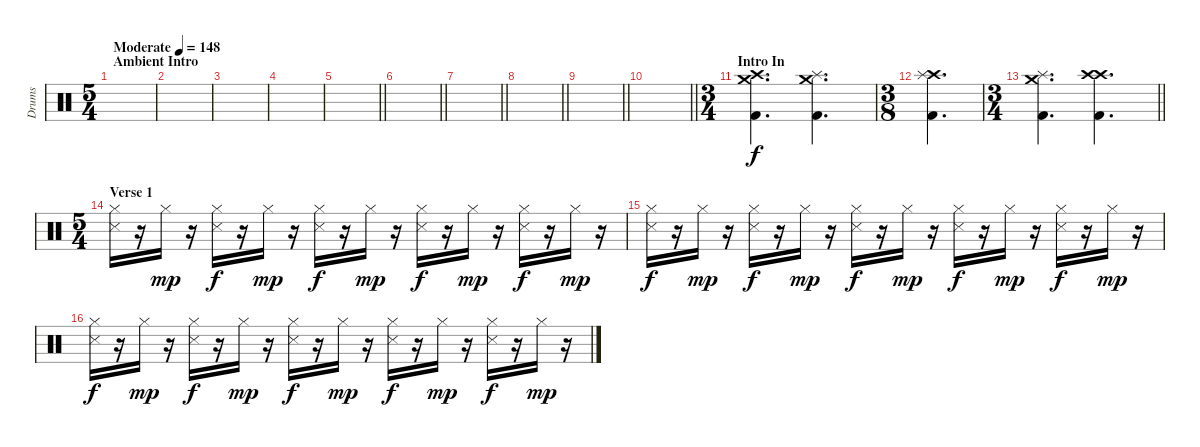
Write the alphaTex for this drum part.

\track ("Drums" "Drums") {instrument percussion}
\staff {score}
\articulation defaults
\ts (5 4)
\section ("" "Ambient Intro")
\tempo (148 "Moderate")
\clef neutral
\ks c
|
|
|
|
\barLineRight lightlight
|
\barLineRight lightlight
|
\barLineRight lightlight
|
\barLineRight lightlight
|
\barLineRight lightlight
|
\barLineRight lightlight
|
\ts (3 4)
\section ("" "Intro In")
("Crash medium (hit)" "Crash high (hit)" "Kick (hit) 2").4{d} ("Splash (hit)" "Crash medium (hit)" "Kick (hit) 2").4{d} |
\ts (3 8)
("Crash high (hit)" "Splash (hit)" "Kick (hit) 2").4{d} |
\ts (3 4)
\barLineRight lightlight
("Crash medium (hit)" "Splash (hit)" "Kick (hit) 2").4{d} ("Crash high (hit)" "Crash high (hit)" "Kick (hit) 2").4{d} |
\ts (5 4)
\section ("" "Verse 1")
("Hi-Hat (closed)" "Snare (side stick) 3").16 r.16 "Hi-Hat (closed)".16{dy mp} r.16 ("Hi-Hat (closed)" "Snare (side stick) 3").16{dy f} r.16 "Hi-Hat (closed)".16{dy mp} r.16 ("Hi-Hat (closed)" "Snare (side stick) 3").16{dy f} r.16 "Hi-Hat (closed)".16{dy mp} r.16 ("Hi-Hat (closed)" "Snare (side stick) 3").16{dy f} r.16 "Hi-Hat (closed)".16{dy mp} r.16 ("Hi-Hat (closed)" "Snare (side stick) 3").16{dy f} r.16 "Hi-Hat (closed)".16{dy mp} r.16 |
("Hi-Hat (closed)" "Snare (side stick) 3").16{dy f} r.16 "Hi-Hat (closed)".16{dy mp} r.16 ("Hi-Hat (closed)" "Snare (side stick) 3").16{dy f} r.16 "Hi-Hat (closed)".16{dy mp} r.16 ("Hi-Hat (closed)" "Snare (side stick) 3").16{dy f} r.16 "Hi-Hat (closed)".16{dy mp} r.16 ("Hi-Hat (closed)" "Snare (side stick) 3").16{dy f} r.16 "Hi-Hat (closed)".16{dy mp} r.16 ("Hi-Hat (closed)" "Snare (side stick) 3").16{dy f} r.16 "Hi-Hat (closed)".16{dy mp} r.16 |
("Hi-Hat (closed)" "Snare (side stick) 3").16{dy f} r.16 "Hi-Hat (closed)".16{dy mp} r.16 ("Hi-Hat (closed)" "Snare (side stick) 3").16{dy f} r.16 "Hi-Hat (closed)".16{dy mp} r.16 ("Hi-Hat (closed)" "Snare (side stick) 3").16{dy f} r.16 "Hi-Hat (closed)".16{dy mp} r.16 ("Hi-Hat (closed)" "Snare (side stick) 3").16{dy f} r.16 "Hi-Hat (closed)".16{dy mp} r.16 ("Hi-Hat (closed)" "Snare (side stick) 3").16{dy f} r.16 "Hi-Hat (closed)".16{dy mp} r.16
